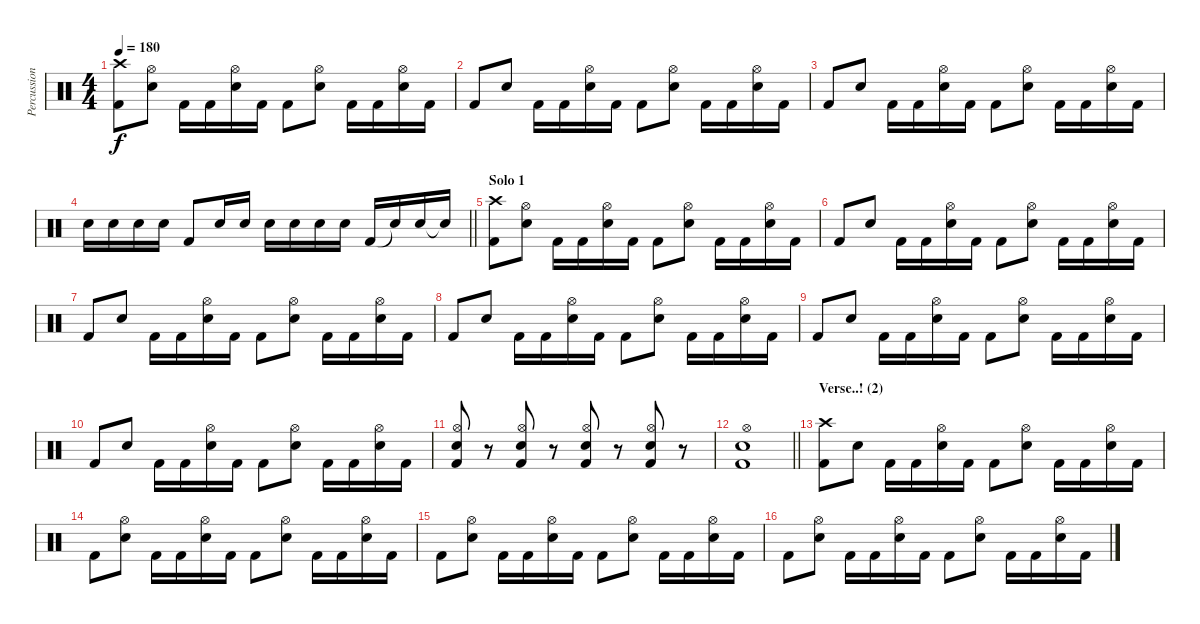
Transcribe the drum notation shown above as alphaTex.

\track ("Percussions" "Percussion") {instrument percussion}
\staff {score}
\articulation defaults
\ts (4 4)
\tempo 180
\clef neutral
\ks c
("Crash high (hit)" "Kick (hit) 2").8{dy f} ("Hi-Hat (open)" "Snare (hit) 2").8 "Kick (hit) 2".16 "Kick (hit) 2".16 ("Hi-Hat (open)" "Snare (hit) 2").16 "Kick (hit) 2".16 "Kick (hit) 2".8 ("Hi-Hat (open)" "Snare (hit) 2").8 "Kick (hit) 2".16 "Kick (hit) 2".16 ("Hi-Hat (open)" "Snare (hit) 2").16 "Kick (hit) 2".16 |
"Kick (hit) 2".8 "Snare (hit) 2".8 "Kick (hit) 2".16 "Kick (hit) 2".16 ("Hi-Hat (open)" "Snare (hit) 2").16 "Kick (hit) 2".16 "Kick (hit) 2".8 ("Hi-Hat (open)" "Snare (hit) 2").8 "Kick (hit) 2".16 "Kick (hit) 2".16 ("Hi-Hat (open)" "Snare (hit) 2").16 "Kick (hit) 2".16 |
"Kick (hit) 2".8 "Snare (hit) 2".8 "Kick (hit) 2".16 "Kick (hit) 2".16 ("Hi-Hat (open)" "Snare (hit) 2").16 "Kick (hit) 2".16 "Kick (hit) 2".8 ("Hi-Hat (open)" "Snare (hit) 2").8 "Kick (hit) 2".16 "Kick (hit) 2".16 ("Hi-Hat (open)" "Snare (hit) 2").16 "Kick (hit) 2".16 |
\barLineRight lightlight "Snare (hit) 2".16 "Snare (hit) 2".16 "Snare (hit) 2".16 "Snare (hit) 2".16 "Kick (hit) 2".8 "Snare (hit) 2".16 "Snare (hit) 2".16 "Snare (hit) 2".16 "Snare (hit) 2".16 "Snare (hit) 2".16 "Snare (hit) 2".16 "Kick (hit) 2".16 "Snare (hit)"{t}.16 "Snare (hit) 2".16 "Snare (hit) 2"{t}.16
|
\section ("" "Solo 1")
("Crash high (hit)" "Kick (hit) 2").8 ("Hi-Hat (open)" "Snare (hit) 2").8 "Kick (hit) 2".16 "Kick (hit) 2".16 ("Hi-Hat (open)" "Snare (hit) 2").16 "Kick (hit) 2".16 "Kick (hit) 2".8 ("Hi-Hat (open)" "Snare (hit) 2").8 "Kick (hit) 2".16 "Kick (hit) 2".16 ("Hi-Hat (open)" "Snare (hit) 2").16 "Kick (hit) 2".16 |
"Kick (hit) 2".8 "Snare (hit) 2".8 "Kick (hit) 2".16 "Kick (hit) 2".16 ("Hi-Hat (open)" "Snare (hit) 2").16 "Kick (hit) 2".16 "Kick (hit) 2".8 ("Hi-Hat (open)" "Snare (hit) 2").8 "Kick (hit) 2".16 "Kick (hit) 2".16 ("Hi-Hat (open)" "Snare (hit) 2").16 "Kick (hit) 2".16 |
"Kick (hit) 2".8 "Snare (hit) 2".8 "Kick (hit) 2".16 "Kick (hit) 2".16 ("Hi-Hat (open)" "Snare (hit) 2").16 "Kick (hit) 2".16 "Kick (hit) 2".8 ("Hi-Hat (open)" "Snare (hit) 2").8 "Kick (hit) 2".16 "Kick (hit) 2".16 ("Hi-Hat (open)" "Snare (hit) 2").16 "Kick (hit) 2".16 |
"Kick (hit) 2".8 "Snare (hit) 2".8 "Kick (hit) 2".16 "Kick (hit) 2".16 ("Hi-Hat (open)" "Snare (hit) 2").16 "Kick (hit) 2".16 "Kick (hit) 2".8 ("Hi-Hat (open)" "Snare (hit) 2").8 "Kick (hit) 2".16 "Kick (hit) 2".16 ("Hi-Hat (open)" "Snare (hit) 2").16 "Kick (hit) 2".16 |
"Kick (hit) 2".8 "Snare (hit) 2".8 "Kick (hit) 2".16 "Kick (hit) 2".16 ("Hi-Hat (open)" "Snare (hit) 2").16 "Kick (hit) 2".16 "Kick (hit) 2".8 ("Hi-Hat (open)" "Snare (hit) 2").8 "Kick (hit) 2".16 "Kick (hit) 2".16 ("Hi-Hat (open)" "Snare (hit) 2").16 "Kick (hit) 2".16 |
"Kick (hit) 2".8 "Snare (hit) 2".8 "Kick (hit) 2".16 "Kick (hit) 2".16 ("Hi-Hat (open)" "Snare (hit) 2").16 "Kick (hit) 2".16 "Kick (hit) 2".8 ("Hi-Hat (open)" "Snare (hit) 2").8 "Kick (hit) 2".16 "Kick (hit) 2".16 ("Hi-Hat (open)" "Snare (hit) 2").16 "Kick (hit) 2".16 |
("Hi-Hat (open)" "Snare (hit) 2" "Kick (hit) 2").8 r.8 ("Hi-Hat (open)" "Snare (hit) 2" "Kick (hit) 2").8 r.8 ("Hi-Hat (open)" "Snare (hit) 2" "Kick (hit) 2").8 r.8 ("Hi-Hat (open)" "Snare (hit) 2" "Kick (hit) 2").8 r.8 |
\barLineRight lightlight
("Hi-Hat (open)" "Snare (hit) 2" "Kick (hit) 2").1 |
\section ("" "Verse..! (2)")
("Crash high (hit)" "Kick (hit) 2").8 "Snare (hit) 2".8 "Kick (hit) 2".16 "Kick (hit) 2".16 ("Hi-Hat (open)" "Snare (hit) 2").16 "Kick (hit) 2".16 "Kick (hit) 2".8 ("Hi-Hat (open)" "Snare (hit) 2").8 "Kick (hit) 2".16 "Kick (hit) 2".16 ("Hi-Hat (open)" "Snare (hit) 2").16 "Kick (hit) 2".16 |
"Kick (hit) 2".8 ("Hi-Hat (open)" "Snare (hit) 2").8 "Kick (hit) 2".16 "Kick (hit) 2".16 ("Hi-Hat (open)" "Snare (hit) 2").16 "Kick (hit) 2".16 "Kick (hit) 2".8 ("Hi-Hat (open)" "Snare (hit) 2").8 "Kick (hit) 2".16 "Kick (hit) 2".16 ("Hi-Hat (open)" "Snare (hit) 2").16 "Kick (hit) 2".16 |
"Kick (hit) 2".8 ("Hi-Hat (open)" "Snare (hit) 2").8 "Kick (hit) 2".16 "Kick (hit) 2".16 ("Hi-Hat (open)" "Snare (hit) 2").16 "Kick (hit) 2".16 "Kick (hit) 2".8 ("Hi-Hat (open)" "Snare (hit) 2").8 "Kick (hit) 2".16 "Kick (hit) 2".16 ("Hi-Hat (open)" "Snare (hit) 2").16 "Kick (hit) 2".16 |
"Kick (hit) 2".8 ("Hi-Hat (open)" "Snare (hit) 2").8 "Kick (hit) 2".16 "Kick (hit) 2".16 ("Hi-Hat (open)" "Snare (hit) 2").16 "Kick (hit) 2".16 "Kick (hit) 2".8 ("Hi-Hat (open)" "Snare (hit) 2").8 "Kick (hit) 2".16 "Kick (hit) 2".16 ("Hi-Hat (open)" "Snare (hit) 2").16 "Kick (hit) 2".16
